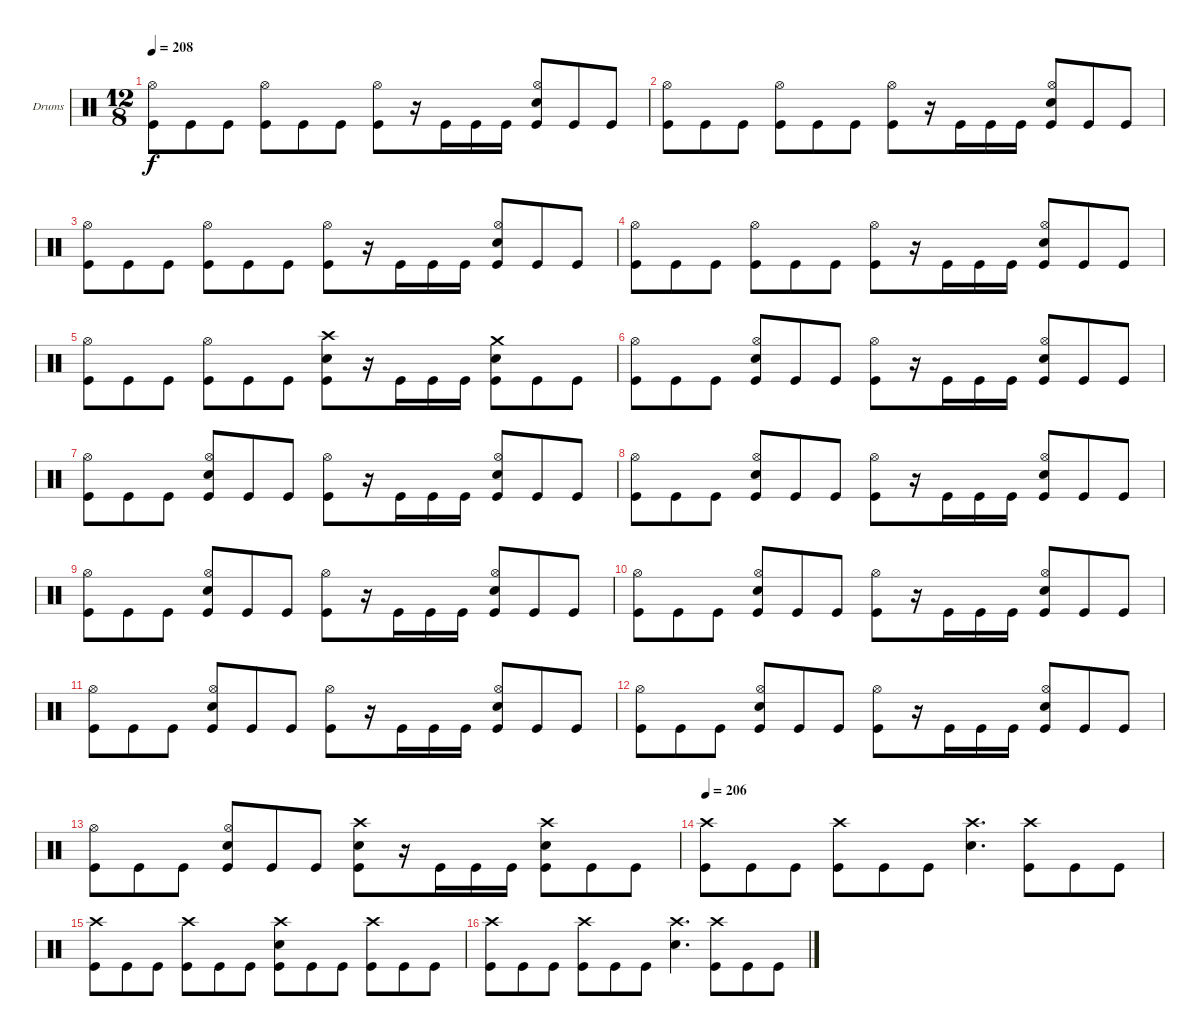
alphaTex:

\bracketExtendMode groupsimilarinstruments
\firstSystemTrackNameOrientation horizontal
\otherSystemsTrackNameOrientation horizontal
\track ("Drumkit" "Drums") {instrument percussion}
\staff {score}
\articulation defaults
\ts (12 8)
\tempo 208
\clef neutral
\ks c
("Kick (hit)" "Hi-Hat (open)").8{dy f} "Kick (hit)".8 "Kick (hit)".8 ("Kick (hit)" "Hi-Hat (open)").8 "Kick (hit)".8 "Kick (hit)".8 ("Kick (hit)" "Hi-Hat (open)").8 r.16 "Kick (hit)".16 "Kick (hit)".16 "Kick (hit)".16 ("Kick (hit)" "Hi-Hat (open)" "Snare (hit) 2").8 "Kick (hit)".8 "Kick (hit)".8 |
("Kick (hit)" "Hi-Hat (open)").8 "Kick (hit)".8 "Kick (hit)".8 ("Kick (hit)" "Hi-Hat (open)").8 "Kick (hit)".8 "Kick (hit)".8 ("Kick (hit)" "Hi-Hat (open)").8 r.16 "Kick (hit)".16 "Kick (hit)".16 "Kick (hit)".16 ("Kick (hit)" "Hi-Hat (open)" "Snare (hit) 2").8 "Kick (hit)".8 "Kick (hit)".8 |
("Kick (hit)" "Hi-Hat (open)").8 "Kick (hit)".8 "Kick (hit)".8 ("Kick (hit)" "Hi-Hat (open)").8 "Kick (hit)".8 "Kick (hit)".8 ("Kick (hit)" "Hi-Hat (open)").8 r.16 "Kick (hit)".16 "Kick (hit)".16 "Kick (hit)".16 ("Kick (hit)" "Hi-Hat (open)" "Snare (hit) 2").8 "Kick (hit)".8 "Kick (hit)".8 |
("Kick (hit)" "Hi-Hat (open)").8 "Kick (hit)".8 "Kick (hit)".8 ("Kick (hit)" "Hi-Hat (open)").8 "Kick (hit)".8 "Kick (hit)".8 ("Kick (hit)" "Hi-Hat (open)").8 r.16 "Kick (hit)".16 "Kick (hit)".16 "Kick (hit)".16 ("Kick (hit)" "Hi-Hat (open)" "Snare (hit) 2").8 "Kick (hit)".8 "Kick (hit)".8 |
("Kick (hit)" "Hi-Hat (open)").8 "Kick (hit)".8 "Kick (hit)".8 ("Kick (hit)" "Hi-Hat (open)").8 "Kick (hit)".8 "Kick (hit)".8 ("Kick (hit)" "Crash high (hit)" "Snare (hit) 2").8 r.16 "Kick (hit)".16 "Kick (hit)".16 "Kick (hit)".16 ("Kick (hit)" "Crash medium (hit)" "Snare (hit) 2").8 "Kick (hit)".8 "Kick (hit)".8 |
("Kick (hit)" "Hi-Hat (open)").8 "Kick (hit)".8 "Kick (hit)".8 ("Kick (hit)" "Hi-Hat (open)" "Snare (hit) 2").8 "Kick (hit)".8 "Kick (hit)".8 ("Kick (hit)" "Hi-Hat (open)").8 r.16 "Kick (hit)".16 "Kick (hit)".16 "Kick (hit)".16 ("Kick (hit)" "Hi-Hat (open)" "Snare (hit) 2").8 "Kick (hit)".8 "Kick (hit)".8 |
("Kick (hit)" "Hi-Hat (open)").8 "Kick (hit)".8 "Kick (hit)".8 ("Kick (hit)" "Hi-Hat (open)" "Snare (hit) 2").8 "Kick (hit)".8 "Kick (hit)".8 ("Kick (hit)" "Hi-Hat (open)").8 r.16 "Kick (hit)".16 "Kick (hit)".16 "Kick (hit)".16 ("Kick (hit)" "Hi-Hat (open)" "Snare (hit) 2").8 "Kick (hit)".8 "Kick (hit)".8 |
("Kick (hit)" "Hi-Hat (open)").8 "Kick (hit)".8 "Kick (hit)".8 ("Kick (hit)" "Hi-Hat (open)" "Snare (hit) 2").8 "Kick (hit)".8 "Kick (hit)".8 ("Kick (hit)" "Hi-Hat (open)").8 r.16 "Kick (hit)".16 "Kick (hit)".16 "Kick (hit)".16 ("Kick (hit)" "Hi-Hat (open)" "Snare (hit) 2").8 "Kick (hit)".8 "Kick (hit)".8 |
("Kick (hit)" "Hi-Hat (open)").8 "Kick (hit)".8 "Kick (hit)".8 ("Kick (hit)" "Hi-Hat (open)" "Snare (hit) 2").8 "Kick (hit)".8 "Kick (hit)".8 ("Kick (hit)" "Hi-Hat (open)").8 r.16 "Kick (hit)".16 "Kick (hit)".16 "Kick (hit)".16 ("Kick (hit)" "Hi-Hat (open)" "Snare (hit) 2").8 "Kick (hit)".8 "Kick (hit)".8 |
("Kick (hit)" "Hi-Hat (open)").8 "Kick (hit)".8 "Kick (hit)".8 ("Kick (hit)" "Hi-Hat (open)" "Snare (hit) 2").8 "Kick (hit)".8 "Kick (hit)".8 ("Kick (hit)" "Hi-Hat (open)").8 r.16 "Kick (hit)".16 "Kick (hit)".16 "Kick (hit)".16 ("Kick (hit)" "Hi-Hat (open)" "Snare (hit) 2").8 "Kick (hit)".8 "Kick (hit)".8 |
("Kick (hit)" "Hi-Hat (open)").8 "Kick (hit)".8 "Kick (hit)".8 ("Kick (hit)" "Hi-Hat (open)" "Snare (hit) 2").8 "Kick (hit)".8 "Kick (hit)".8 ("Kick (hit)" "Hi-Hat (open)").8 r.16 "Kick (hit)".16 "Kick (hit)".16 "Kick (hit)".16 ("Kick (hit)" "Hi-Hat (open)" "Snare (hit) 2").8 "Kick (hit)".8 "Kick (hit)".8 |
("Kick (hit)" "Hi-Hat (open)").8 "Kick (hit)".8 "Kick (hit)".8 ("Kick (hit)" "Hi-Hat (open)" "Snare (hit) 2").8 "Kick (hit)".8 "Kick (hit)".8 ("Kick (hit)" "Hi-Hat (open)").8 r.16 "Kick (hit)".16 "Kick (hit)".16 "Kick (hit)".16 ("Kick (hit)" "Hi-Hat (open)" "Snare (hit) 2").8 "Kick (hit)".8 "Kick (hit)".8 |
("Kick (hit)" "Hi-Hat (open)").8 "Kick (hit)".8 "Kick (hit)".8 ("Kick (hit)" "Hi-Hat (open)" "Snare (hit) 2").8 "Kick (hit)".8 "Kick (hit)".8 ("Kick (hit)" "Crash high (hit)" "Snare (hit) 2").8 r.16 "Kick (hit)".16 "Kick (hit)".16 "Kick (hit)".16 ("Kick (hit)" "Crash high (hit)" "Snare (hit) 2").8 "Kick (hit)".8 "Kick (hit)".8 |
\tempo 206
("Crash high (hit)" "Kick (hit)").8 "Kick (hit)".8 "Kick (hit)".8 ("Crash high (hit)" "Kick (hit)").8 "Kick (hit)".8 "Kick (hit)".8 ("Crash high (hit)" "Snare (hit) 2").4{d} ("Crash high (hit)" "Kick (hit)").8 "Kick (hit)".8 "Kick (hit)".8 |
("Crash high (hit)" "Kick (hit)").8 "Kick (hit)".8 "Kick (hit)".8 ("Crash high (hit)" "Kick (hit)").8 "Kick (hit)".8 "Kick (hit)".8 ("Crash high (hit)" "Kick (hit)" "Snare (hit) 2").8 "Kick (hit)".8 "Kick (hit)".8 ("Crash high (hit)" "Kick (hit)").8 "Kick (hit)".8 "Kick (hit)".8 |
("Crash high (hit)" "Kick (hit)").8 "Kick (hit)".8 "Kick (hit)".8 ("Crash high (hit)" "Kick (hit)").8 "Kick (hit)".8 "Kick (hit)".8 ("Crash high (hit)" "Snare (hit) 2").4{d} ("Crash high (hit)" "Kick (hit)").8 "Kick (hit)".8 "Kick (hit)".8
